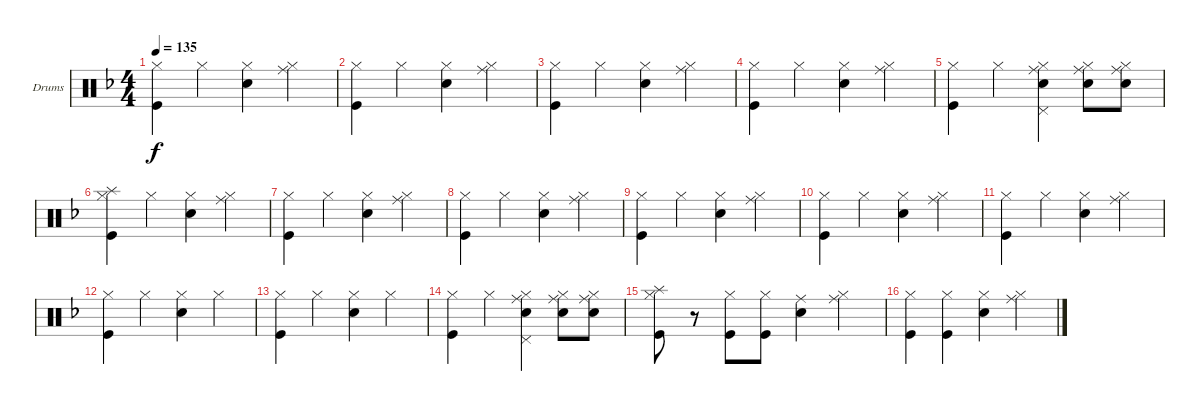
\bracketExtendMode groupsimilarinstruments
\firstSystemTrackNameOrientation horizontal
\otherSystemsTrackNameOrientation horizontal
\track ("Drumkitover" "Drums") {instrument percussion}
\staff {score}
\articulation defaults
\ts (4 4)
\tempo 135
\clef neutral
\ks dminor
("Kick (hit)" "Hi-Hat (closed)").4{dy f} "Hi-Hat (closed)".4 ("Snare (hit) 2" "Hi-Hat (closed)").4 ("Hi-Hat (closed)" "Ride (middle)").4 |
("Kick (hit)" "Hi-Hat (closed)").4 "Hi-Hat (closed)".4 ("Snare (hit) 2" "Hi-Hat (closed)").4 ("Hi-Hat (closed)" "Ride (middle)").4 |
("Kick (hit)" "Hi-Hat (closed)").4 "Hi-Hat (closed)".4 ("Snare (hit) 2" "Hi-Hat (closed)").4 ("Hi-Hat (closed)" "Ride (middle)").4 |
("Kick (hit)" "Hi-Hat (closed)").4 "Hi-Hat (closed)".4 ("Snare (hit) 2" "Hi-Hat (closed)").4 ("Hi-Hat (closed)" "Ride (middle)").4 |
("Kick (hit)" "Hi-Hat (closed)").4 "Hi-Hat (closed)".4 ("Ride (middle)" "Snare (hit) 2" "Hi-Hat (closed)" "Pedal Hi-Hat (hit)").4 ("Hi-Hat (closed)" "Snare (hit) 2" "Ride (middle)").8 ("Hi-Hat (closed)" "Snare (hit) 2" "Ride (middle)").8 |
("Kick (hit)" "Hi-Hat (closed)" "Splash (hit)").4 "Hi-Hat (closed)".4 ("Snare (hit) 2" "Hi-Hat (closed)").4 ("Hi-Hat (closed)" "Ride (middle)").4 |
("Kick (hit)" "Hi-Hat (closed)").4 "Hi-Hat (closed)".4 ("Snare (hit) 2" "Hi-Hat (closed)").4 ("Hi-Hat (closed)" "Ride (middle)").4 |
("Kick (hit)" "Hi-Hat (closed)").4 "Hi-Hat (closed)".4 ("Snare (hit) 2" "Hi-Hat (closed)").4 ("Hi-Hat (closed)" "Ride (middle)").4 |
("Kick (hit)" "Hi-Hat (closed)").4 "Hi-Hat (closed)".4 ("Snare (hit) 2" "Hi-Hat (closed)").4 ("Hi-Hat (closed)" "Ride (middle)").4 |
("Kick (hit)" "Hi-Hat (closed)").4 "Hi-Hat (closed)".4 ("Snare (hit) 2" "Hi-Hat (closed)").4 ("Hi-Hat (closed)" "Ride (middle)").4 |
("Kick (hit)" "Hi-Hat (closed)").4 "Hi-Hat (closed)".4 ("Snare (hit) 2" "Hi-Hat (closed)").4 ("Hi-Hat (closed)" "Ride (middle)").4 |
("Kick (hit)" "Hi-Hat (closed)").4 "Hi-Hat (closed)".4 ("Snare (hit) 2" "Hi-Hat (closed)").4 "Hi-Hat (closed)".4 |
("Kick (hit)" "Hi-Hat (closed)").4 "Hi-Hat (closed)".4 ("Snare (hit) 2" "Hi-Hat (closed)").4 "Hi-Hat (closed)".4 |
("Kick (hit)" "Hi-Hat (closed)").4 "Hi-Hat (closed)".4 ("Ride (middle)" "Snare (hit) 2" "Hi-Hat (closed)" "Pedal Hi-Hat (hit)").4 ("Hi-Hat (closed)" "Snare (hit) 2" "Ride (middle)").8 ("Hi-Hat (closed)" "Snare (hit) 2" "Ride (middle)").8 |
("Hi-Hat (closed)" "Kick (hit)" "Splash (hit)").8 r.8 ("Hi-Hat (closed)" "Kick (hit)").8 ("Hi-Hat (closed)" "Kick (hit)").8 ("Snare (hit) 2" "Ride (middle)").4 ("Hi-Hat (closed)" "Ride (middle)").4 |
("Hi-Hat (closed)" "Kick (hit)").4 ("Hi-Hat (closed)" "Kick (hit)").4 ("Snare (hit) 2" "Hi-Hat (closed)").4 ("Hi-Hat (closed)" "Ride (middle)").4
